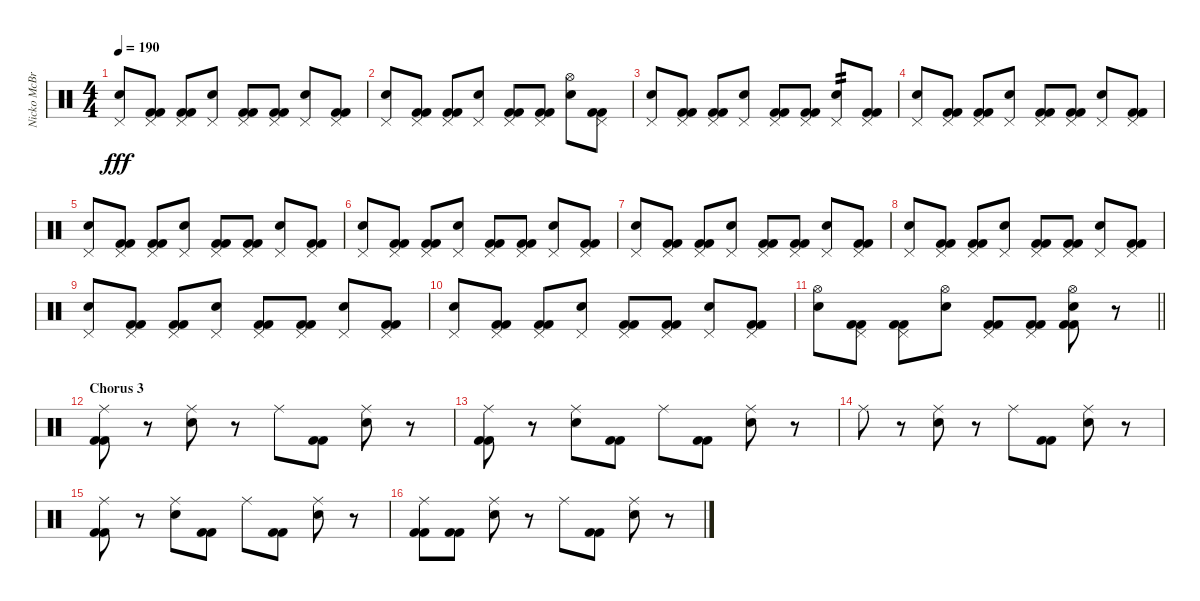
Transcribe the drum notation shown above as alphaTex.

\track ("Nicko McBrain" "Nicko McBr") {instrument percussion}
\staff {score}
\articulation defaults
\ts (4 4)
\tempo 190
\clef neutral
\ks c
("Snare (hit) 2" "Pedal Hi-Hat (hit)").8{dy fff} ("Pedal Hi-Hat (hit)" "Kick (hit) 2" "Kick (hit) 2").8 ("Pedal Hi-Hat (hit)" "Kick (hit) 2" "Kick (hit) 2").8 ("Snare (hit) 2" "Pedal Hi-Hat (hit)").8 ("Pedal Hi-Hat (hit)" "Kick (hit) 2" "Kick (hit) 2").8 ("Pedal Hi-Hat (hit)" "Kick (hit) 2" "Kick (hit) 2").8 ("Snare (hit) 2" "Pedal Hi-Hat (hit)").8 ("Pedal Hi-Hat (hit)" "Kick (hit) 2" "Kick (hit) 2").8 |
("Snare (hit) 2" "Pedal Hi-Hat (hit)").8 ("Pedal Hi-Hat (hit)" "Kick (hit) 2" "Kick (hit) 2").8 ("Pedal Hi-Hat (hit)" "Kick (hit) 2" "Kick (hit) 2").8 ("Snare (hit) 2" "Pedal Hi-Hat (hit)").8 ("Pedal Hi-Hat (hit)" "Kick (hit) 2" "Kick (hit) 2").8 ("Pedal Hi-Hat (hit)" "Kick (hit) 2" "Kick (hit) 2").8 ("Snare (hit) 2" "Hi-Hat (open)").8 ("Pedal Hi-Hat (hit)" "Kick (hit) 2" "Kick (hit) 2").8 |
("Snare (hit) 2" "Pedal Hi-Hat (hit)").8 ("Pedal Hi-Hat (hit)" "Kick (hit) 2" "Kick (hit) 2").8 ("Pedal Hi-Hat (hit)" "Kick (hit) 2" "Kick (hit) 2").8 ("Snare (hit) 2" "Pedal Hi-Hat (hit)").8 ("Pedal Hi-Hat (hit)" "Kick (hit) 2" "Kick (hit) 2").8 ("Pedal Hi-Hat (hit)" "Kick (hit) 2" "Kick (hit) 2").8 ("Snare (hit) 2" "Pedal Hi-Hat (hit)").8{tp 2} ("Pedal Hi-Hat (hit)" "Kick (hit) 2" "Kick (hit) 2").8 |
("Snare (hit) 2" "Pedal Hi-Hat (hit)").8 ("Pedal Hi-Hat (hit)" "Kick (hit) 2" "Kick (hit) 2").8 ("Pedal Hi-Hat (hit)" "Kick (hit) 2" "Kick (hit) 2").8 ("Snare (hit) 2" "Pedal Hi-Hat (hit)").8 ("Pedal Hi-Hat (hit)" "Kick (hit) 2" "Kick (hit) 2").8 ("Pedal Hi-Hat (hit)" "Kick (hit) 2" "Kick (hit) 2").8 ("Snare (hit) 2" "Pedal Hi-Hat (hit)").8 ("Pedal Hi-Hat (hit)" "Kick (hit) 2" "Kick (hit) 2").8 |
("Snare (hit) 2" "Pedal Hi-Hat (hit)").8 ("Pedal Hi-Hat (hit)" "Kick (hit) 2" "Kick (hit) 2").8 ("Pedal Hi-Hat (hit)" "Kick (hit) 2" "Kick (hit) 2").8 ("Snare (hit) 2" "Pedal Hi-Hat (hit)").8 ("Pedal Hi-Hat (hit)" "Kick (hit) 2" "Kick (hit) 2").8 ("Pedal Hi-Hat (hit)" "Kick (hit) 2" "Kick (hit) 2").8 ("Snare (hit) 2" "Pedal Hi-Hat (hit)").8 ("Pedal Hi-Hat (hit)" "Kick (hit) 2" "Kick (hit) 2").8 |
("Snare (hit) 2" "Pedal Hi-Hat (hit)").8 ("Pedal Hi-Hat (hit)" "Kick (hit) 2" "Kick (hit) 2").8 ("Pedal Hi-Hat (hit)" "Kick (hit) 2" "Kick (hit) 2").8 ("Snare (hit) 2" "Pedal Hi-Hat (hit)").8 ("Pedal Hi-Hat (hit)" "Kick (hit) 2" "Kick (hit) 2").8 ("Pedal Hi-Hat (hit)" "Kick (hit) 2" "Kick (hit) 2").8 ("Snare (hit) 2" "Pedal Hi-Hat (hit)").8 ("Pedal Hi-Hat (hit)" "Kick (hit) 2" "Kick (hit) 2").8 |
("Snare (hit) 2" "Pedal Hi-Hat (hit)").8 ("Pedal Hi-Hat (hit)" "Kick (hit) 2" "Kick (hit) 2").8 ("Pedal Hi-Hat (hit)" "Kick (hit) 2" "Kick (hit) 2").8 ("Snare (hit) 2" "Pedal Hi-Hat (hit)").8 ("Pedal Hi-Hat (hit)" "Kick (hit) 2" "Kick (hit) 2").8 ("Pedal Hi-Hat (hit)" "Kick (hit) 2" "Kick (hit) 2").8 ("Snare (hit) 2" "Pedal Hi-Hat (hit)").8 ("Pedal Hi-Hat (hit)" "Kick (hit) 2" "Kick (hit) 2").8 |
("Snare (hit) 2" "Pedal Hi-Hat (hit)").8 ("Pedal Hi-Hat (hit)" "Kick (hit) 2" "Kick (hit) 2").8 ("Pedal Hi-Hat (hit)" "Kick (hit) 2" "Kick (hit) 2").8 ("Snare (hit) 2" "Pedal Hi-Hat (hit)").8 ("Pedal Hi-Hat (hit)" "Kick (hit) 2" "Kick (hit) 2").8 ("Pedal Hi-Hat (hit)" "Kick (hit) 2" "Kick (hit) 2").8 ("Snare (hit) 2" "Pedal Hi-Hat (hit)").8 ("Pedal Hi-Hat (hit)" "Kick (hit) 2" "Kick (hit) 2").8 |
("Snare (hit) 2" "Pedal Hi-Hat (hit)").8 ("Pedal Hi-Hat (hit)" "Kick (hit) 2" "Kick (hit) 2").8 ("Pedal Hi-Hat (hit)" "Kick (hit) 2" "Kick (hit) 2").8 ("Snare (hit) 2" "Pedal Hi-Hat (hit)").8 ("Pedal Hi-Hat (hit)" "Kick (hit) 2" "Kick (hit) 2").8 ("Pedal Hi-Hat (hit)" "Kick (hit) 2" "Kick (hit) 2").8 ("Snare (hit) 2" "Pedal Hi-Hat (hit)").8 ("Pedal Hi-Hat (hit)" "Kick (hit) 2" "Kick (hit) 2").8 |
("Snare (hit) 2" "Pedal Hi-Hat (hit)").8 ("Pedal Hi-Hat (hit)" "Kick (hit) 2" "Kick (hit) 2").8 ("Pedal Hi-Hat (hit)" "Kick (hit) 2" "Kick (hit) 2").8 ("Snare (hit) 2" "Pedal Hi-Hat (hit)").8 ("Pedal Hi-Hat (hit)" "Kick (hit) 2" "Kick (hit) 2").8 ("Pedal Hi-Hat (hit)" "Kick (hit) 2" "Kick (hit) 2").8 ("Snare (hit) 2" "Pedal Hi-Hat (hit)").8 ("Pedal Hi-Hat (hit)" "Kick (hit) 2" "Kick (hit) 2").8 |
\barLineRight lightlight
("Snare (hit) 2" "Hi-Hat (open)").8 ("Pedal Hi-Hat (hit)" "Kick (hit) 2" "Kick (hit) 2").8 ("Pedal Hi-Hat (hit)" "Kick (hit) 2" "Kick (hit) 2").8 ("Snare (hit) 2" "Hi-Hat (open)").8 ("Pedal Hi-Hat (hit)" "Kick (hit) 2" "Kick (hit) 2").8 ("Pedal Hi-Hat (hit)" "Kick (hit) 2" "Kick (hit) 2").8 ("Snare (hit) 2" "Hi-Hat (open)" "Kick (hit) 2" "Kick (hit) 2").8 r.8 |
\section ("" "Chorus 3")
("Ride (middle)" "Kick (hit) 2" "Kick (hit) 2").8 r.8 ("Snare (hit) 2" "Ride (middle)").8 r.8 "Ride (middle)".8 ("Kick (hit) 2" "Kick (hit) 2").8 ("Snare (hit) 2" "Ride (middle)").8 r.8 |
("Ride (middle)" "Kick (hit) 2" "Kick (hit) 2").8 r.8 ("Snare (hit) 2" "Ride (middle)").8 ("Kick (hit) 2" "Kick (hit) 2").8 "Ride (middle)".8 ("Kick (hit) 2" "Kick (hit) 2").8 ("Snare (hit) 2" "Ride (middle)").8 r.8 |
"Ride (middle)".8 r.8 ("Snare (hit) 2" "Ride (middle)").8 r.8 "Ride (middle)".8 ("Kick (hit) 2" "Kick (hit) 2").8 ("Snare (hit) 2" "Ride (middle)").8 r.8 |
("Ride (middle)" "Kick (hit) 2" "Kick (hit) 2").8 r.8 ("Snare (hit) 2" "Ride (middle)").8 ("Kick (hit) 2" "Kick (hit) 2").8 "Ride (middle)".8 ("Kick (hit) 2" "Kick (hit) 2").8 ("Snare (hit) 2" "Ride (middle)").8 r.8 |
("Ride (middle)" "Kick (hit) 2" "Kick (hit) 2").8 ("Kick (hit) 2" "Kick (hit) 2").8 ("Snare (hit) 2" "Ride (middle)").8 r.8 "Ride (middle)".8 ("Kick (hit) 2" "Kick (hit) 2").8 ("Snare (hit) 2" "Ride (middle)").8 r.8
